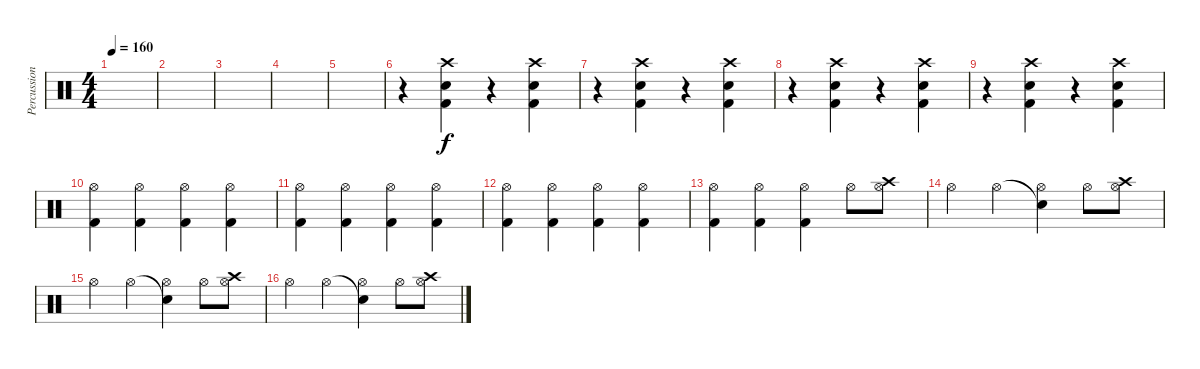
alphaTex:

\track ("Percussion" "Percussion") {instrument percussion}
\staff {score}
\articulation defaults
\ts (4 4)
\tempo 160
\clef neutral
\ks c
|
|
|
|
|
r.4 ("Crash high (hit)" "Snare (hit) 2" "Kick (hit) 2").4 r.4 ("Crash high (hit)" "Snare (hit) 2" "Kick (hit) 2").4 |
r.4 ("Crash high (hit)" "Snare (hit) 2" "Kick (hit) 2").4 r.4 ("Crash high (hit)" "Snare (hit) 2" "Kick (hit) 2").4 |
r.4 ("Crash high (hit)" "Snare (hit) 2" "Kick (hit) 2").4 r.4 ("Crash high (hit)" "Snare (hit) 2" "Kick (hit) 2").4 |
r.4 ("Crash high (hit)" "Snare (hit) 2" "Kick (hit) 2").4 r.4 ("Crash high (hit)" "Snare (hit) 2" "Kick (hit) 2").4 |
("Hi-Hat (open)" "Kick (hit) 2").4 ("Hi-Hat (open)" "Kick (hit) 2").4 ("Hi-Hat (open)" "Kick (hit) 2").4 ("Hi-Hat (open)" "Kick (hit) 2").4 |
("Hi-Hat (open)" "Kick (hit) 2").4 ("Hi-Hat (open)" "Kick (hit) 2").4 ("Hi-Hat (open)" "Kick (hit) 2").4 ("Hi-Hat (open)" "Kick (hit) 2").4 |
("Hi-Hat (open)" "Kick (hit) 2").4 ("Hi-Hat (open)" "Kick (hit) 2").4 ("Hi-Hat (open)" "Kick (hit) 2").4 ("Hi-Hat (open)" "Kick (hit) 2").4 |
("Hi-Hat (open)" "Kick (hit) 2").4 ("Hi-Hat (open)" "Kick (hit) 2").4 ("Hi-Hat (open)" "Kick (hit) 2").4 "Hi-Hat (open)".8 ("Hi-Hat (open)" "Crash high (hit)").8 |
"Hi-Hat (open)".4 "Hi-Hat (open)".4 ("Snare (hit)"{t} "Hi-Hat (open)").4 "Hi-Hat (open)".8 ("Hi-Hat (open)" "Crash high (hit)").8 |
"Hi-Hat (open)".4 "Hi-Hat (open)".4 ("Snare (hit)"{t} "Hi-Hat (open)").4 "Hi-Hat (open)".8 ("Hi-Hat (open)" "Crash high (hit)").8 |
"Hi-Hat (open)".4 "Hi-Hat (open)".4 ("Snare (hit)"{t} "Hi-Hat (open)").4 "Hi-Hat (open)".8 ("Hi-Hat (open)" "Crash high (hit)").8
